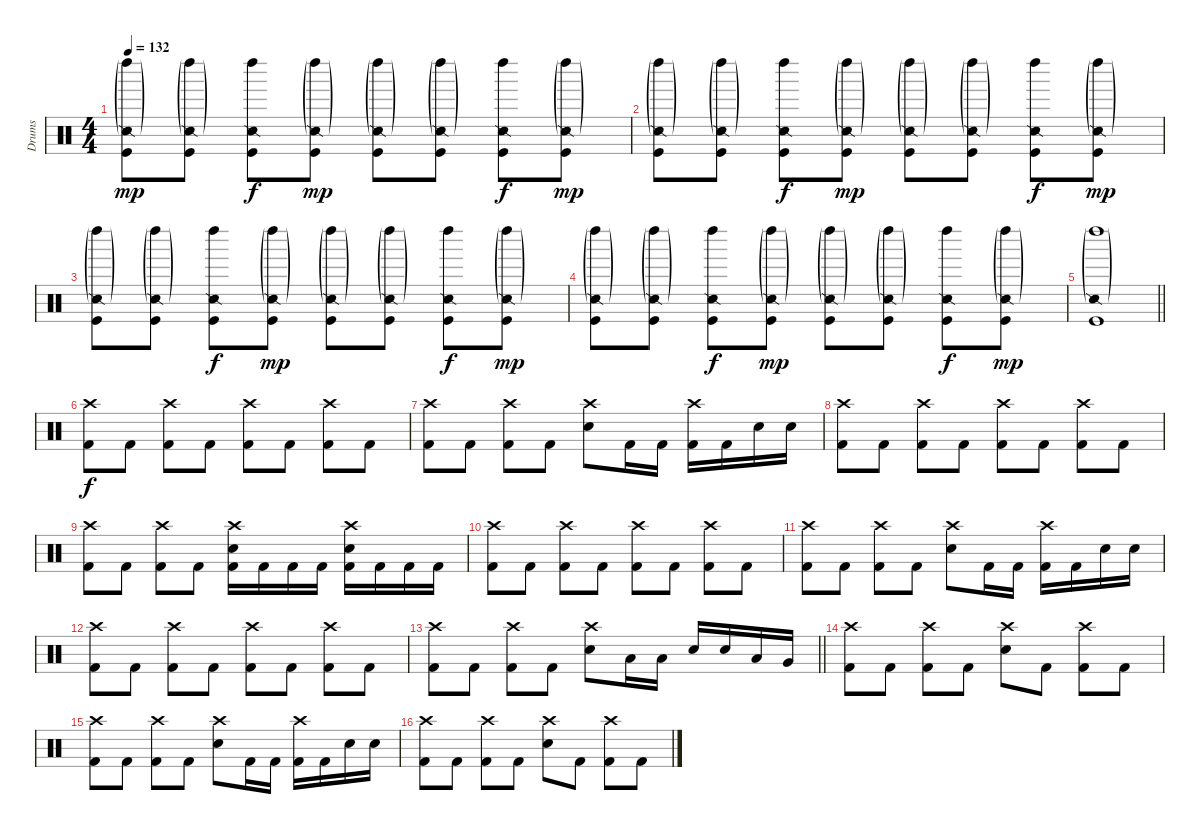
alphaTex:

\track ("Drums" "Drums") {instrument percussion}
\staff {score}
\articulation defaults
\ts (4 4)
\tempo 132
\clef neutral
\ks c
("Left Maraca (hit)"{g} "Snare (side stick) 2"{g} "Kick (hit)").8{dy mp} ("Left Maraca (hit)"{g} "Snare (side stick) 2"{g} "Kick (hit)").8 ("Left Maraca (hit)" "Snare (side stick) 2" "Kick (hit)").8{dy f} ("Left Maraca (hit)"{g} "Snare (side stick) 2"{g} "Kick (hit)").8{dy mp} ("Left Maraca (hit)"{g} "Snare (side stick) 2"{g} "Kick (hit)").8 ("Left Maraca (hit)"{g} "Snare (side stick) 2"{g} "Kick (hit)").8 ("Left Maraca (hit)" "Snare (side stick) 2" "Kick (hit)").8{dy f} ("Left Maraca (hit)"{g} "Snare (side stick) 2"{g} "Kick (hit)").8{dy mp} |
("Left Maraca (hit)"{g} "Snare (side stick) 2"{g} "Kick (hit)").8 ("Left Maraca (hit)"{g} "Snare (side stick) 2"{g} "Kick (hit)").8 ("Left Maraca (hit)" "Snare (side stick) 2" "Kick (hit)").8{dy f} ("Left Maraca (hit)"{g} "Snare (side stick) 2"{g} "Kick (hit)").8{dy mp} ("Left Maraca (hit)"{g} "Snare (side stick) 2"{g} "Kick (hit)").8 ("Left Maraca (hit)"{g} "Snare (side stick) 2"{g} "Kick (hit)").8 ("Left Maraca (hit)" "Snare (side stick) 2" "Kick (hit)").8{dy f} ("Left Maraca (hit)"{g} "Snare (side stick) 2"{g} "Kick (hit)").8{dy mp} |
("Left Maraca (hit)"{g} "Snare (side stick) 2"{g} "Kick (hit)").8 ("Left Maraca (hit)"{g} "Snare (side stick) 2"{g} "Kick (hit)").8 ("Left Maraca (hit)" "Snare (side stick) 2" "Kick (hit)").8{dy f} ("Left Maraca (hit)"{g} "Snare (side stick) 2"{g} "Kick (hit)").8{dy mp} ("Left Maraca (hit)"{g} "Snare (side stick) 2"{g} "Kick (hit)").8 ("Left Maraca (hit)"{g} "Snare (side stick) 2"{g} "Kick (hit)").8 ("Left Maraca (hit)" "Snare (side stick) 2" "Kick (hit)").8{dy f} ("Left Maraca (hit)"{g} "Snare (side stick) 2"{g} "Kick (hit)").8{dy mp} |
("Left Maraca (hit)"{g} "Snare (side stick) 2"{g} "Kick (hit)").8 ("Left Maraca (hit)"{g} "Snare (side stick) 2"{g} "Kick (hit)").8 ("Left Maraca (hit)" "Snare (side stick) 2" "Kick (hit)").8{dy f} ("Left Maraca (hit)"{g} "Snare (side stick) 2"{g} "Kick (hit)").8{dy mp} ("Left Maraca (hit)"{g} "Snare (side stick) 2"{g} "Kick (hit)").8 ("Left Maraca (hit)"{g} "Snare (side stick) 2"{g} "Kick (hit)").8 ("Left Maraca (hit)" "Snare (side stick) 2" "Kick (hit)").8{dy f} ("Left Maraca (hit)"{g} "Snare (side stick) 2"{g} "Kick (hit)").8{dy mp} |
\barLineRight lightlight
("Left Maraca (hit)"{g} "Snare (side stick) 2"{g} "Kick (hit)").1 |
\section ("" "")
("Crash high (hit)" "Kick (hit) 2").8{dy f} "Kick (hit) 2".8 ("Crash high (hit)" "Kick (hit) 2").8 "Kick (hit) 2".8 ("Crash high (hit)" "Kick (hit) 2").8 "Kick (hit) 2".8 ("Crash high (hit)" "Kick (hit) 2").8 "Kick (hit) 2".8 |
("Crash high (hit)" "Kick (hit) 2").8 "Kick (hit) 2".8 ("Crash high (hit)" "Kick (hit) 2").8 "Kick (hit) 2".8 ("Crash high (hit)" "Electric Snare (hit)").8 "Kick (hit) 2".16 "Kick (hit) 2".16 ("Crash high (hit)" "Kick (hit) 2").16 "Kick (hit) 2".16 "Electric Snare (hit)".16 "Electric Snare (hit)".16 |
("Crash high (hit)" "Kick (hit) 2").8 "Kick (hit) 2".8 ("Crash high (hit)" "Kick (hit) 2").8 "Kick (hit) 2".8 ("Crash high (hit)" "Kick (hit) 2").8 "Kick (hit) 2".8 ("Crash high (hit)" "Kick (hit) 2").8 "Kick (hit) 2".8 |
("Crash high (hit)" "Kick (hit) 2").8 "Kick (hit) 2".8 ("Crash high (hit)" "Kick (hit) 2").8 "Kick (hit) 2".8 ("Crash high (hit)" "Electric Snare (hit)" "Kick (hit) 2").16 "Kick (hit) 2".16 "Kick (hit) 2".16 "Kick (hit) 2".16 ("Crash high (hit)" "Electric Snare (hit)" "Kick (hit) 2").16 "Kick (hit) 2".16 "Kick (hit) 2".16 "Kick (hit) 2".16 |
("Crash high (hit)" "Kick (hit) 2").8 "Kick (hit) 2".8 ("Crash high (hit)" "Kick (hit) 2").8 "Kick (hit) 2".8 ("Crash high (hit)" "Kick (hit) 2").8 "Kick (hit) 2".8 ("Crash high (hit)" "Kick (hit) 2").8 "Kick (hit) 2".8 |
("Crash high (hit)" "Kick (hit) 2").8 "Kick (hit) 2".8 ("Crash high (hit)" "Kick (hit) 2").8 "Kick (hit) 2".8 ("Crash high (hit)" "Electric Snare (hit)").8 "Kick (hit) 2".16 "Kick (hit) 2".16 ("Crash high (hit)" "Kick (hit) 2").16 "Kick (hit) 2".16 "Electric Snare (hit)".16 "Electric Snare (hit)".16 |
("Crash high (hit)" "Kick (hit) 2").8 "Kick (hit) 2".8 ("Crash high (hit)" "Kick (hit) 2").8 "Kick (hit) 2".8 ("Crash high (hit)" "Kick (hit) 2").8 "Kick (hit) 2".8 ("Crash high (hit)" "Kick (hit) 2").8 "Kick (hit) 2".8 |
\barLineRight lightlight
("Crash high (hit)" "Kick (hit) 2").8 "Kick (hit) 2".8 ("Crash high (hit)" "Kick (hit) 2").8 "Kick (hit) 2".8 ("Crash high (hit)" "Electric Snare (hit)").8 "Low Tom (hit)".16 "Low Tom (hit)".16 "Electric Snare (hit)".16 "Electric Snare (hit)".16 "Low Tom (hit)".16 "Very Low Tom (hit)".16 |
\section ("" "")
("Crash high (hit)" "Kick (hit) 2").8 "Kick (hit) 2".8 ("Crash high (hit)" "Kick (hit) 2").8 "Kick (hit) 2".8 ("Crash high (hit)" "Electric Snare (hit)").8 "Kick (hit) 2".8 ("Crash high (hit)" "Kick (hit) 2").8 "Kick (hit) 2".8 |
("Crash high (hit)" "Kick (hit) 2").8 "Kick (hit) 2".8 ("Crash high (hit)" "Kick (hit) 2").8 "Kick (hit) 2".8 ("Crash high (hit)" "Electric Snare (hit)").8 "Kick (hit) 2".16 "Kick (hit) 2".16 ("Crash high (hit)" "Kick (hit) 2").16 "Kick (hit) 2".16 "Electric Snare (hit)".16 "Electric Snare (hit)".16 |
("Crash high (hit)" "Kick (hit) 2").8 "Kick (hit) 2".8 ("Crash high (hit)" "Kick (hit) 2").8 "Kick (hit) 2".8 ("Crash high (hit)" "Electric Snare (hit)").8 "Kick (hit) 2".8 ("Crash high (hit)" "Kick (hit) 2").8 "Kick (hit) 2".8
